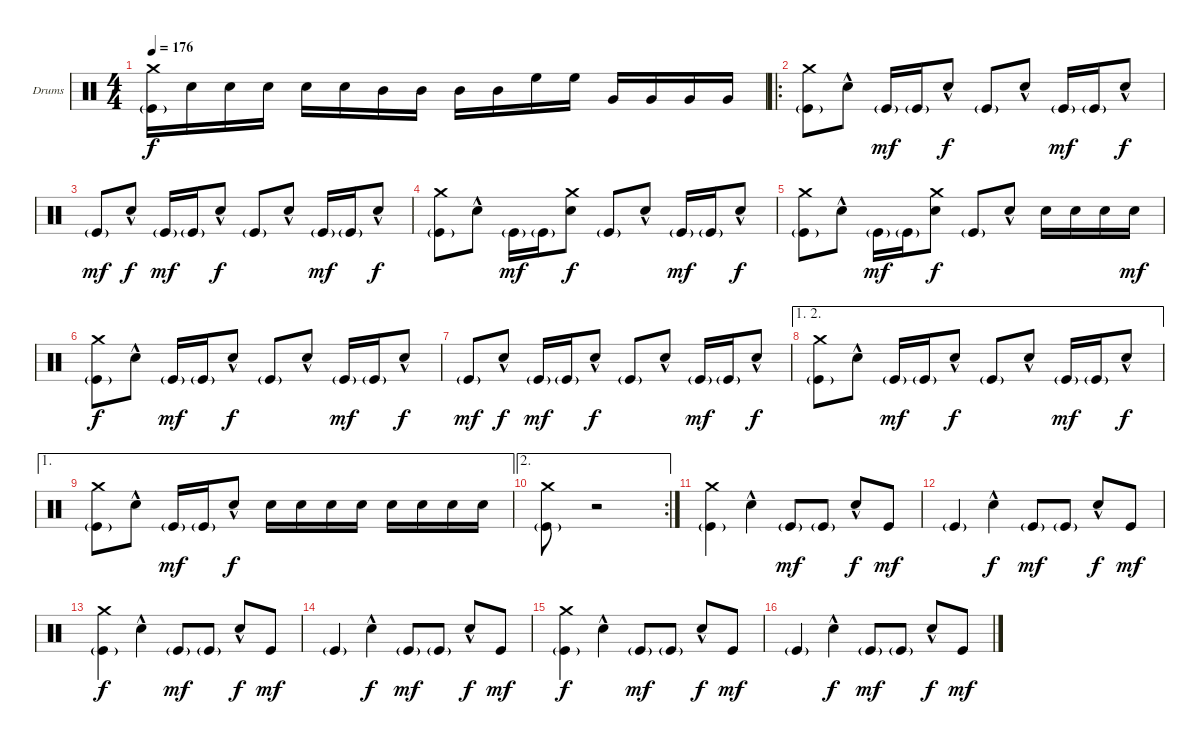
\defaultSystemsLayout 4
\bracketExtendMode groupsimilarinstruments
\firstSystemTrackNameOrientation horizontal
\otherSystemsTrackNameOrientation horizontal
\track ("Drums" "Drums") {instrument percussion}
\staff {score}
\articulation defaults
\ts (4 4)
\tempo 176
\clef neutral
\ks c
("Crash medium (hit)" "Kick (hit)"{g}).16{dy f} "Snare (hit) 2".16 "Snare (hit) 2".16 "Snare (hit) 2".16 "Snare (hit) 2".16 "Snare (hit) 2".16 "Mid Tom (hit)".16 "Mid Tom (hit)".16 "Mid Tom (hit)".16 "Mid Tom (hit)".16 "High Floor Tom (hit)".16 "High Floor Tom (hit)".16 "Very Low Tom (hit)".16 "Very Low Tom (hit)".16 "Very Low Tom (hit)".16 "Very Low Tom (hit)".16 |
\ro
("Crash medium (hit)" "Kick (hit)"{g}).8 "Snare (hit) 2"{hac}.8 "Kick (hit)"{g}.16{dy mf} "Kick (hit)"{g}.16 "Snare (hit) 2"{hac}.8{dy f} "Kick (hit)"{g}.8 "Snare (hit) 2"{hac}.8 "Kick (hit)"{g}.16{dy mf} "Kick (hit)"{g}.16 "Snare (hit) 2"{hac}.8{dy f} |
"Kick (hit)"{g}.8{dy mf} "Snare (hit) 2"{hac}.8{dy f} "Kick (hit)"{g}.16{dy mf} "Kick (hit)"{g}.16 "Snare (hit) 2"{hac}.8{dy f} "Kick (hit)"{g}.8 "Snare (hit) 2"{hac}.8 "Kick (hit)"{g}.16{dy mf} "Kick (hit)"{g}.16 "Snare (hit) 2"{hac}.8{dy f} |
("Crash medium (hit)" "Kick (hit)"{g}).8 "Snare (hit) 2"{hac}.8 "Kick (hit)"{g}.16{dy mf} "Kick (hit)"{g}.16 ("Crash medium (hit)" "Snare (hit) 2").8{dy f} "Kick (hit)"{g}.8 "Snare (hit) 2"{hac}.8 "Kick (hit)"{g}.16{dy mf} "Kick (hit)"{g}.16 "Snare (hit) 2"{hac}.8{dy f} |
("Crash medium (hit)" "Kick (hit)"{g}).8 "Snare (hit) 2"{hac}.8 "Kick (hit)"{g}.16{dy mf} "Kick (hit)"{g}.16 ("Crash medium (hit)" "Snare (hit) 2").8{dy f} "Kick (hit)"{g}.8 "Snare (hit) 2"{hac}.8 "Snare (hit) 2".16 "Snare (hit) 2".16 "Snare (hit) 2".16 "Snare (hit) 2".16{dy mf} |
("Crash medium (hit)" "Kick (hit)"{g}).8{dy f} "Snare (hit) 2"{hac}.8 "Kick (hit)"{g}.16{dy mf} "Kick (hit)"{g}.16 "Snare (hit) 2"{hac}.8{dy f} "Kick (hit)"{g}.8 "Snare (hit) 2"{hac}.8 "Kick (hit)"{g}.16{dy mf} "Kick (hit)"{g}.16 "Snare (hit) 2"{hac}.8{dy f} |
"Kick (hit)"{g}.8{dy mf} "Snare (hit) 2"{hac}.8{dy f} "Kick (hit)"{g}.16{dy mf} "Kick (hit)"{g}.16 "Snare (hit) 2"{hac}.8{dy f} "Kick (hit)"{g}.8 "Snare (hit) 2"{hac}.8 "Kick (hit)"{g}.16{dy mf} "Kick (hit)"{g}.16 "Snare (hit) 2"{hac}.8{dy f} |
\ae (1 2)
("Crash medium (hit)" "Kick (hit)"{g}).8 "Snare (hit) 2"{hac}.8 "Kick (hit)"{g}.16{dy mf} "Kick (hit)"{g}.16 "Snare (hit) 2"{hac}.8{dy f} "Kick (hit)"{g}.8 "Snare (hit) 2"{hac}.8 "Kick (hit)"{g}.16{dy mf} "Kick (hit)"{g}.16 "Snare (hit) 2"{hac}.8{dy f} |
\ae 1
("Crash medium (hit)" "Kick (hit)"{g}).8 "Snare (hit) 2"{hac}.8 "Kick (hit)"{g}.16{dy mf} "Kick (hit)"{g}.16 "Snare (hit) 2"{hac}.8{dy f} "Snare (hit) 2".16 "Snare (hit) 2".16 "Snare (hit) 2".16 "Snare (hit) 2".16 "Snare (hit) 2".16 "Snare (hit) 2".16 "Snare (hit) 2".16 "Snare (hit) 2".16 |
\ae 2
\rc 2
("Crash medium (hit)" "Kick (hit)"{g}).8 r.2 |
("Crash medium (hit)" "Kick (hit)"{g}).4 "Snare (hit) 2"{hac}.4 "Kick (hit)"{g}.8{dy mf} "Kick (hit)"{g}.8 "Snare (hit) 2"{hac}.8{dy f} "Kick (hit)".8{dy mf} |
"Kick (hit)"{g}.4 "Snare (hit) 2"{hac}.4{dy f} "Kick (hit)"{g}.8{dy mf} "Kick (hit)"{g}.8 "Snare (hit) 2"{hac}.8{dy f} "Kick (hit)".8{dy mf} |
("Crash medium (hit)" "Kick (hit)"{g}).4{dy f} "Snare (hit) 2"{hac}.4 "Kick (hit)"{g}.8{dy mf} "Kick (hit)"{g}.8 "Snare (hit) 2"{hac}.8{dy f} "Kick (hit)".8{dy mf} |
"Kick (hit)"{g}.4 "Snare (hit) 2"{hac}.4{dy f} "Kick (hit)"{g}.8{dy mf} "Kick (hit)"{g}.8 "Snare (hit) 2"{hac}.8{dy f} "Kick (hit)".8{dy mf} |
("Crash medium (hit)" "Kick (hit)"{g}).4{dy f} "Snare (hit) 2"{hac}.4 "Kick (hit)"{g}.8{dy mf} "Kick (hit)"{g}.8 "Snare (hit) 2"{hac}.8{dy f} "Kick (hit)".8{dy mf} |
"Kick (hit)"{g}.4 "Snare (hit) 2"{hac}.4{dy f} "Kick (hit)"{g}.8{dy mf} "Kick (hit)"{g}.8 "Snare (hit) 2"{hac}.8{dy f} "Kick (hit)".8{dy mf}
